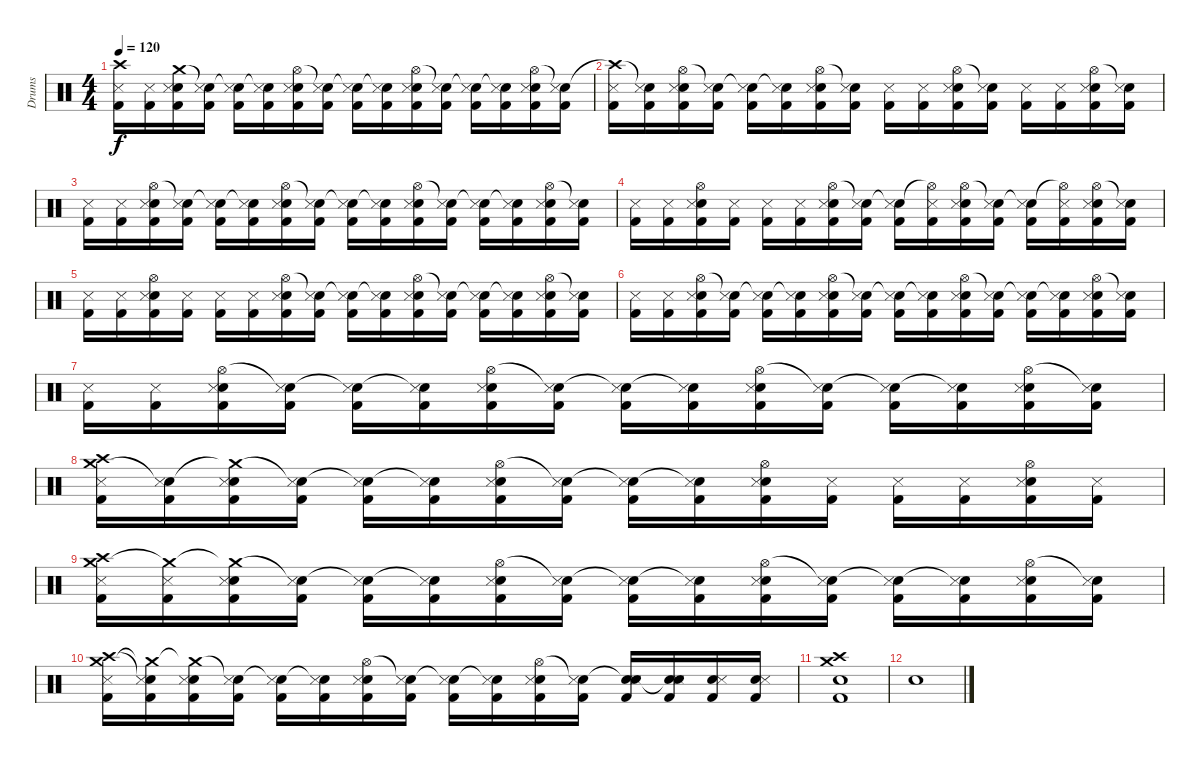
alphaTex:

\track ("Drums" "Drums") {instrument percussion}
\staff {score}
\articulation defaults
\ts (4 4)
\tempo 120
\clef neutral
\ks c
("Crash high (hit)" "Kick (hit) 2" "Snare (side stick) 3").16{dy f} ("Kick (hit) 2" "Snare (side stick) 3").16 ("Crash medium (hit)" "Electric Snare (hit)" "Kick (hit) 2" "Snare (side stick) 3").16 ("Snare (hit)"{t} "Kick (hit) 2" "Snare (side stick) 3").16 ("Snare (hit)"{t} "Kick (hit) 2" "Snare (side stick) 3").16 ("Snare (hit)"{t} "Kick (hit) 2" "Snare (side stick) 3").16 ("Hi-Hat (open)" "Electric Snare (hit)" "Kick (hit) 2" "Snare (side stick) 3").16 ("Snare (hit)"{t} "Kick (hit) 2" "Snare (side stick) 3").16 ("Snare (hit)"{t} "Kick (hit) 2" "Snare (side stick) 3").16 ("Snare (hit)"{t} "Kick (hit) 2" "Snare (side stick) 3").16 ("Hi-Hat (open)" "Electric Snare (hit)" "Kick (hit) 2" "Snare (side stick) 3").16 ("Snare (hit)"{t} "Kick (hit) 2" "Snare (side stick) 3").16 ("Snare (hit)"{t} "Kick (hit) 2" "Snare (side stick) 3").16 ("Snare (hit)"{t} "Kick (hit) 2" "Snare (side stick) 3").16 ("Hi-Hat (open)" "Electric Snare (hit)" "Kick (hit) 2" "Snare (side stick) 3").16 ("Snare (hit)"{t} "Kick (hit) 2" "Snare (side stick) 3").16 |
("Crash high (hit)"{t} "Kick (hit) 2" "Snare (side stick) 3").16 ("Snare (hit)"{t} "Kick (hit) 2" "Snare (side stick) 3").16 ("Hi-Hat (open)" "Electric Snare (hit)" "Kick (hit) 2" "Snare (side stick) 3").16 ("Snare (hit)"{t} "Kick (hit) 2" "Snare (side stick) 3").16 ("Snare (hit)"{t} "Kick (hit) 2" "Snare (side stick) 3").16 ("Snare (hit)"{t} "Kick (hit) 2" "Snare (side stick) 3").16 ("Hi-Hat (open)" "Electric Snare (hit)" "Kick (hit) 2" "Snare (side stick) 3").16 ("Snare (hit)"{t} "Kick (hit) 2" "Snare (side stick) 3").16 ("Kick (hit) 2" "Snare (side stick) 3").16 ("Kick (hit) 2" "Snare (side stick) 3").16 ("Hi-Hat (open)" "Electric Snare (hit)" "Kick (hit) 2" "Snare (side stick) 3").16 ("Snare (hit)"{t} "Kick (hit) 2" "Snare (side stick) 3").16 ("Kick (hit) 2" "Snare (side stick) 3").16 ("Kick (hit) 2" "Snare (side stick) 3").16 ("Hi-Hat (open)" "Electric Snare (hit)" "Kick (hit) 2" "Snare (side stick) 3").16 ("Snare (hit)"{t} "Kick (hit) 2" "Snare (side stick) 3").16 |
("Kick (hit) 2" "Snare (side stick) 3").16 ("Kick (hit) 2" "Snare (side stick) 3").16 ("Hi-Hat (open)" "Electric Snare (hit)" "Kick (hit) 2" "Snare (side stick) 3").16 ("Snare (hit)"{t} "Kick (hit) 2" "Snare (side stick) 3").16 ("Snare (hit)"{t} "Kick (hit) 2" "Snare (side stick) 3").16 ("Snare (hit)"{t} "Kick (hit) 2" "Snare (side stick) 3").16 ("Hi-Hat (open)" "Electric Snare (hit)" "Kick (hit) 2" "Snare (side stick) 3").16 ("Snare (hit)"{t} "Kick (hit) 2" "Snare (side stick) 3").16 ("Snare (hit)"{t} "Kick (hit) 2" "Snare (side stick) 3").16 ("Snare (hit)"{t} "Kick (hit) 2" "Snare (side stick) 3").16 ("Hi-Hat (open)" "Electric Snare (hit)" "Kick (hit) 2" "Snare (side stick) 3").16 ("Snare (hit)"{t} "Kick (hit) 2" "Snare (side stick) 3").16 ("Snare (hit)"{t} "Kick (hit) 2" "Snare (side stick) 3").16 ("Snare (hit)"{t} "Kick (hit) 2" "Snare (side stick) 3").16 ("Hi-Hat (open)" "Electric Snare (hit)" "Kick (hit) 2" "Snare (side stick) 3").16 ("Snare (hit)"{t} "Kick (hit) 2" "Snare (side stick) 3").16 |
("Kick (hit) 2" "Snare (side stick) 3").16 ("Kick (hit) 2" "Snare (side stick) 3").16 ("Hi-Hat (open)" "Electric Snare (hit)" "Kick (hit) 2" "Snare (side stick) 3").16 ("Kick (hit) 2" "Snare (side stick) 3").16 ("Kick (hit) 2" "Snare (side stick) 3").16 ("Kick (hit) 2" "Snare (side stick) 3").16 ("Hi-Hat (open)" "Electric Snare (hit)" "Kick (hit) 2" "Snare (side stick) 3").16 ("Snare (hit)"{t} "Kick (hit) 2" "Snare (side stick) 3").16 ("Snare (hit)"{t} "Kick (hit) 2" "Snare (side stick) 3").16 ("Hi-Hat (open)"{t} "Kick (hit) 2" "Snare (side stick) 3").16 ("Hi-Hat (open)" "Electric Snare (hit)" "Kick (hit) 2" "Snare (side stick) 3").16 ("Snare (hit)"{t} "Kick (hit) 2" "Snare (side stick) 3").16 ("Snare (hit)"{t} "Kick (hit) 2" "Snare (side stick) 3").16 ("Hi-Hat (open)"{t} "Kick (hit) 2" "Snare (side stick) 3").16 ("Hi-Hat (open)" "Electric Snare (hit)" "Kick (hit) 2" "Snare (side stick) 3").16 ("Snare (hit)"{t} "Kick (hit) 2" "Snare (side stick) 3").16 |
("Kick (hit) 2" "Snare (side stick) 3").16 ("Kick (hit) 2" "Snare (side stick) 3").16 ("Hi-Hat (open)" "Electric Snare (hit)" "Kick (hit) 2" "Snare (side stick) 3").16 ("Kick (hit) 2" "Snare (side stick) 3").16 ("Kick (hit) 2" "Snare (side stick) 3").16 ("Kick (hit) 2" "Snare (side stick) 3").16 ("Hi-Hat (open)" "Electric Snare (hit)" "Kick (hit) 2" "Snare (side stick) 3").16 ("Snare (hit)"{t} "Kick (hit) 2" "Snare (side stick) 3").16 ("Snare (hit)"{t} "Kick (hit) 2" "Snare (side stick) 3").16 ("Snare (hit)"{t} "Kick (hit) 2" "Snare (side stick) 3").16 ("Hi-Hat (open)" "Electric Snare (hit)" "Kick (hit) 2" "Snare (side stick) 3").16 ("Snare (hit)"{t} "Kick (hit) 2" "Snare (side stick) 3").16 ("Snare (hit)"{t} "Kick (hit) 2" "Snare (side stick) 3").16 ("Snare (hit)"{t} "Kick (hit) 2" "Snare (side stick) 3").16 ("Hi-Hat (open)" "Electric Snare (hit)" "Kick (hit) 2" "Snare (side stick) 3").16 ("Snare (hit)"{t} "Kick (hit) 2" "Snare (side stick) 3").16 |
("Kick (hit) 2" "Snare (side stick) 3").16 ("Kick (hit) 2" "Snare (side stick) 3").16 ("Hi-Hat (open)" "Electric Snare (hit)" "Kick (hit) 2" "Snare (side stick) 3").16 ("Snare (hit)"{t} "Kick (hit) 2" "Snare (side stick) 3").16 ("Snare (hit)"{t} "Kick (hit) 2" "Snare (side stick) 3").16 ("Snare (hit)"{t} "Kick (hit) 2" "Snare (side stick) 3").16 ("Hi-Hat (open)" "Electric Snare (hit)" "Kick (hit) 2" "Snare (side stick) 3").16 ("Snare (hit)"{t} "Kick (hit) 2" "Snare (side stick) 3").16 ("Snare (hit)"{t} "Kick (hit) 2" "Snare (side stick) 3").16 ("Snare (hit)"{t} "Kick (hit) 2" "Snare (side stick) 3").16 ("Hi-Hat (open)" "Electric Snare (hit)" "Kick (hit) 2" "Snare (side stick) 3").16 ("Snare (hit)"{t} "Kick (hit) 2" "Snare (side stick) 3").16 ("Snare (hit)"{t} "Kick (hit) 2" "Snare (side stick) 3").16 ("Snare (hit)"{t} "Kick (hit) 2" "Snare (side stick) 3").16 ("Hi-Hat (open)" "Electric Snare (hit)" "Kick (hit) 2" "Snare (side stick) 3").16 ("Snare (hit)"{t} "Kick (hit) 2" "Snare (side stick) 3").16 |
("Kick (hit) 2" "Snare (side stick) 3").16 ("Kick (hit) 2" "Snare (side stick) 3").16 ("Hi-Hat (open)" "Electric Snare (hit)" "Kick (hit) 2" "Snare (side stick) 3").16 ("Snare (hit)"{t} "Kick (hit) 2" "Snare (side stick) 3").16 ("Snare (hit)"{t} "Kick (hit) 2" "Snare (side stick) 3").16 ("Snare (hit)"{t} "Kick (hit) 2" "Snare (side stick) 3").16 ("Hi-Hat (open)" "Electric Snare (hit)" "Kick (hit) 2" "Snare (side stick) 3").16 ("Snare (hit)"{t} "Kick (hit) 2" "Snare (side stick) 3").16 ("Snare (hit)"{t} "Kick (hit) 2" "Snare (side stick) 3").16 ("Snare (hit)"{t} "Kick (hit) 2" "Snare (side stick) 3").16 ("Hi-Hat (open)" "Electric Snare (hit)" "Kick (hit) 2" "Snare (side stick) 3").16 ("Snare (hit)"{t} "Kick (hit) 2" "Snare (side stick) 3").16 ("Snare (hit)"{t} "Kick (hit) 2" "Snare (side stick) 3").16 ("Snare (hit)"{t} "Kick (hit) 2" "Snare (side stick) 3").16 ("Hi-Hat (open)" "Electric Snare (hit)" "Kick (hit) 2" "Snare (side stick) 3").16 ("Snare (hit)"{t} "Kick (hit) 2" "Snare (side stick) 3").16 |
("Crash medium (hit)" "Crash high (hit)" "Kick (hit) 2" "Snare (side stick) 3").16 ("Snare (hit)"{t} "Kick (hit) 2" "Snare (side stick) 3").16 ("Crash medium (hit)"{t} "Electric Snare (hit)" "Kick (hit) 2" "Snare (side stick) 3").16 ("Snare (hit)"{t} "Kick (hit) 2" "Snare (side stick) 3").16 ("Snare (hit)"{t} "Kick (hit) 2" "Snare (side stick) 3").16 ("Snare (hit)"{t} "Kick (hit) 2" "Snare (side stick) 3").16 ("Hi-Hat (open)" "Electric Snare (hit)" "Kick (hit) 2" "Snare (side stick) 3").16 ("Snare (hit)"{t} "Kick (hit) 2" "Snare (side stick) 3").16 ("Snare (hit)"{t} "Kick (hit) 2" "Snare (side stick) 3").16 ("Snare (hit)"{t} "Kick (hit) 2" "Snare (side stick) 3").16 ("Hi-Hat (open)" "Electric Snare (hit)" "Kick (hit) 2" "Snare (side stick) 3").16 ("Kick (hit) 2" "Snare (side stick) 3").16 ("Kick (hit) 2" "Snare (side stick) 3").16 ("Kick (hit) 2" "Snare (side stick) 3").16 ("Hi-Hat (open)" "Electric Snare (hit)" "Kick (hit) 2" "Snare (side stick) 3").16 ("Kick (hit) 2" "Snare (side stick) 3").16 |
("Crash medium (hit)" "Crash high (hit)" "Kick (hit) 2" "Snare (side stick) 3").16 ("Crash medium (hit)"{t} "Kick (hit) 2" "Snare (side stick) 3").16 ("Crash medium (hit)"{t} "Electric Snare (hit)" "Kick (hit) 2" "Snare (side stick) 3").16 ("Snare (hit)"{t} "Kick (hit) 2" "Snare (side stick) 3").16 ("Snare (hit)"{t} "Kick (hit) 2" "Snare (side stick) 3").16 ("Snare (hit)"{t} "Kick (hit) 2" "Snare (side stick) 3").16 ("Hi-Hat (open)" "Electric Snare (hit)" "Kick (hit) 2" "Snare (side stick) 3").16 ("Snare (hit)"{t} "Kick (hit) 2" "Snare (side stick) 3").16 ("Snare (hit)"{t} "Kick (hit) 2" "Snare (side stick) 3").16 ("Snare (hit)"{t} "Kick (hit) 2" "Snare (side stick) 3").16 ("Hi-Hat (open)" "Electric Snare (hit)" "Kick (hit) 2" "Snare (side stick) 3").16 ("Snare (hit)"{t} "Kick (hit) 2" "Snare (side stick) 3").16 ("Snare (hit)"{t} "Kick (hit) 2" "Snare (side stick) 3").16 ("Snare (hit)"{t} "Kick (hit) 2" "Snare (side stick) 3").16 ("Hi-Hat (open)" "Electric Snare (hit)" "Kick (hit) 2" "Snare (side stick) 3").16 ("Snare (hit)"{t} "Kick (hit) 2" "Snare (side stick) 3").16 |
("Crash medium (hit)" "Crash high (hit)" "Kick (hit) 2" "Snare (side stick) 3").16 ("Crash medium (hit)"{t} "Snare (hit)"{t} "Kick (hit) 2" "Snare (side stick) 3").16 ("Crash medium (hit)"{t} "Electric Snare (hit)" "Kick (hit) 2" "Snare (side stick) 3").16 ("Snare (hit)"{t} "Kick (hit) 2" "Snare (side stick) 3").16 ("Snare (hit)"{t} "Kick (hit) 2" "Snare (side stick) 3").16 ("Snare (hit)"{t} "Kick (hit) 2" "Snare (side stick) 3").16 ("Hi-Hat (open)" "Electric Snare (hit)" "Kick (hit) 2" "Snare (side stick) 3").16 ("Snare (hit)"{t} "Kick (hit) 2" "Snare (side stick) 3").16 ("Snare (hit)"{t} "Kick (hit) 2" "Snare (side stick) 3").16 ("Snare (hit)"{t} "Kick (hit) 2" "Snare (side stick) 3").16 ("Hi-Hat (open)" "Electric Snare (hit)" "Kick (hit) 2" "Snare (side stick) 3").16 ("Snare (hit)"{t} "Kick (hit) 2" "Snare (side stick) 3").16 ("Snare (hit)"{t} "Electric Snare (hit)" "Kick (hit) 2" "Snare (side stick) 3").16 ("Snare (hit)"{t} "Electric Snare (hit)" "Kick (hit) 2" "Snare (side stick) 3").16 ("Electric Snare (hit)" "Kick (hit) 2" "Snare (side stick) 3").16 ("Electric Snare (hit)" "Kick (hit) 2" "Snare (side stick) 3").16 |
("Crash medium (hit)" "Kick (hit) 2" "Electric Snare (hit)" "Crash high (hit)").1 |
"Electric Snare (hit)".1
